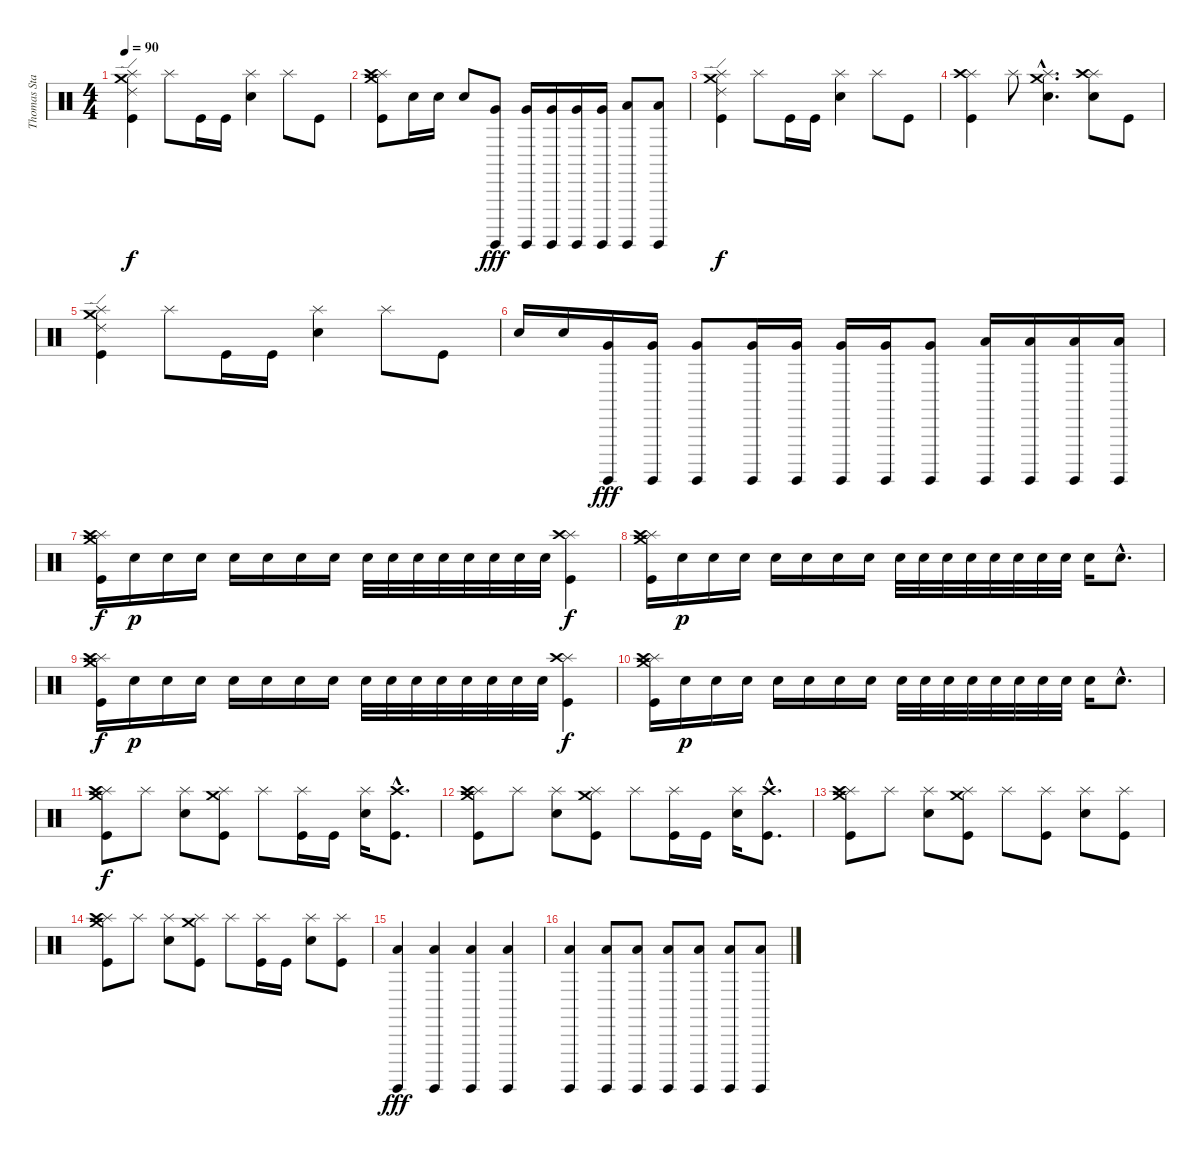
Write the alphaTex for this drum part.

\track ("Thomas Stauch" "Thomas Sta") {instrument percussion}
\staff {score}
\articulation defaults
\ts (4 4)
\tempo 90
\clef neutral
\ks c
("Crash medium (hit)" "Splash (hit)" "Ride (edge) 2" "Kick (hit)").4{dy f} "Splash (hit)".8 "Kick (hit)".16 "Kick (hit)".16 ("Splash (hit)" "Electric Snare (hit)").4 "Splash (hit)".8 "Kick (hit)".8 |
("Crash medium (hit)" "Splash (hit)" "Crash high (hit)" "Kick (hit)").8 "Electric Snare (hit)".16 "Electric Snare (hit)".16 "Electric Snare (hit)".8 ("Surdo (hit)" "Very Low Tom (hit)").8{dy fff} ("Surdo (hit)" "Very Low Tom (hit)").16 ("Surdo (hit)" "Very Low Tom (hit)").16 ("Surdo (hit)" "Very Low Tom (hit)").16 ("Surdo (hit)" "Very Low Tom (hit)").16 ("Surdo (hit)" "Low Floor Tom (hit)").8 ("Surdo (hit)" "Low Floor Tom (hit)").8 |
("Crash medium (hit)" "Splash (hit)" "Ride (edge) 2" "Kick (hit)").4{dy f} "Splash (hit)".8 "Kick (hit)".16 "Kick (hit)".16 ("Splash (hit)" "Electric Snare (hit)").4 "Splash (hit)".8 "Kick (hit)".8 |
("Splash (hit)" "Crash high (hit)" "Kick (hit)").4 "Splash (hit)".8 ("Crash medium (hit)"{hac} "Splash (hit)"{hac} "Electric Snare (hit)"{hac}).4{d} ("Splash (hit)" "Crash high (hit)" "Electric Snare (hit)").8 "Kick (hit)".8 |
("Crash medium (hit)" "Splash (hit)" "Ride (edge) 2" "Kick (hit)").4 "Splash (hit)".8 "Kick (hit)".16 "Kick (hit)".16 ("Splash (hit)" "Electric Snare (hit)").4 "Splash (hit)".8 "Kick (hit)".8 |
"Electric Snare (hit)".16 "Electric Snare (hit)".16 ("Surdo (hit)" "Very Low Tom (hit)").16{dy fff} ("Surdo (hit)" "Very Low Tom (hit)").16 ("Surdo (hit)" "Very Low Tom (hit)").8 ("Surdo (hit)" "Very Low Tom (hit)").16 ("Surdo (hit)" "Very Low Tom (hit)").16 ("Surdo (hit)" "Very Low Tom (hit)").16 ("Surdo (hit)" "Very Low Tom (hit)").16 ("Surdo (hit)" "Very Low Tom (hit)").8 ("Surdo (hit)" "Low Floor Tom (hit)").16 ("Surdo (hit)" "Low Floor Tom (hit)").16 ("Surdo (hit)" "Low Floor Tom (hit)").16 ("Surdo (hit)" "Low Floor Tom (hit)").16 |
("Crash medium (hit)" "Splash (hit)" "Crash high (hit)" "Kick (hit)").16{dy f} "Electric Snare (hit)".16{dy p} "Electric Snare (hit)".16 "Electric Snare (hit)".16 "Electric Snare (hit)".16 "Electric Snare (hit)".16 "Electric Snare (hit)".16 "Electric Snare (hit)".16 "Electric Snare (hit)".32 "Electric Snare (hit)".32 "Electric Snare (hit)".32 "Electric Snare (hit)".32 "Electric Snare (hit)".32 "Electric Snare (hit)".32 "Electric Snare (hit)".32 "Electric Snare (hit)".32 ("Splash (hit)" "Crash high (hit)" "Kick (hit)").4{dy f} |
("Crash medium (hit)" "Splash (hit)" "Crash high (hit)" "Kick (hit)").16 "Electric Snare (hit)".16{dy p} "Electric Snare (hit)".16 "Electric Snare (hit)".16 "Electric Snare (hit)".16 "Electric Snare (hit)".16 "Electric Snare (hit)".16 "Electric Snare (hit)".16 "Electric Snare (hit)".32 "Electric Snare (hit)".32 "Electric Snare (hit)".32 "Electric Snare (hit)".32 "Electric Snare (hit)".32 "Electric Snare (hit)".32 "Electric Snare (hit)".32 "Electric Snare (hit)".32 "Electric Snare (hit)".16 "Electric Snare (hit)"{hac}.8{d} |
("Crash medium (hit)" "Splash (hit)" "Crash high (hit)" "Kick (hit)").16{dy f} "Electric Snare (hit)".16{dy p} "Electric Snare (hit)".16 "Electric Snare (hit)".16 "Electric Snare (hit)".16 "Electric Snare (hit)".16 "Electric Snare (hit)".16 "Electric Snare (hit)".16 "Electric Snare (hit)".32 "Electric Snare (hit)".32 "Electric Snare (hit)".32 "Electric Snare (hit)".32 "Electric Snare (hit)".32 "Electric Snare (hit)".32 "Electric Snare (hit)".32 "Electric Snare (hit)".32 ("Splash (hit)" "Crash high (hit)" "Kick (hit)").4{dy f} |
("Crash medium (hit)" "Splash (hit)" "Crash high (hit)" "Kick (hit)").16 "Electric Snare (hit)".16{dy p} "Electric Snare (hit)".16 "Electric Snare (hit)".16 "Electric Snare (hit)".16 "Electric Snare (hit)".16 "Electric Snare (hit)".16 "Electric Snare (hit)".16 "Electric Snare (hit)".32 "Electric Snare (hit)".32 "Electric Snare (hit)".32 "Electric Snare (hit)".32 "Electric Snare (hit)".32 "Electric Snare (hit)".32 "Electric Snare (hit)".32 "Electric Snare (hit)".32 "Electric Snare (hit)".16 "Electric Snare (hit)"{hac}.8{d} |
("Crash medium (hit)" "Splash (hit)" "Crash high (hit)" "Kick (hit)").8{dy f} "Splash (hit)".8 ("Splash (hit)" "Electric Snare (hit)").8 ("Crash medium (hit)" "Splash (hit)" "Kick (hit)").8 "Splash (hit)".8 ("Splash (hit)" "Kick (hit)").16 "Kick (hit)".16 ("Splash (hit)" "Electric Snare (hit)").16 ("Crash high (hit)"{hac} "Kick (hit)"{hac}).8{d} |
("Crash medium (hit)" "Splash (hit)" "Crash high (hit)" "Kick (hit)").8 "Splash (hit)".8 ("Splash (hit)" "Electric Snare (hit)").8 ("Crash medium (hit)" "Splash (hit)" "Kick (hit)").8 "Splash (hit)".8 ("Splash (hit)" "Kick (hit)").16 "Kick (hit)".16 ("Splash (hit)" "Electric Snare (hit)").16 ("Crash high (hit)"{hac} "Kick (hit)"{hac}).8{d} |
("Crash medium (hit)" "Splash (hit)" "Crash high (hit)" "Kick (hit)").8 "Splash (hit)".8 ("Splash (hit)" "Electric Snare (hit)").8 ("Crash medium (hit)" "Splash (hit)" "Kick (hit)").8 "Splash (hit)".8 ("Splash (hit)" "Kick (hit)").8 ("Splash (hit)" "Electric Snare (hit)").8 ("Splash (hit)" "Kick (hit)").8 |
("Crash medium (hit)" "Splash (hit)" "Crash high (hit)" "Kick (hit)").8 "Splash (hit)".8 ("Splash (hit)" "Electric Snare (hit)").8 ("Crash medium (hit)" "Splash (hit)" "Kick (hit)").8 "Splash (hit)".8 ("Splash (hit)" "Kick (hit)").16 "Kick (hit)".16 ("Splash (hit)" "Electric Snare (hit)").8 ("Splash (hit)" "Kick (hit)").8 |
("Surdo (hit)" "Low Floor Tom (hit)").4{dy fff} ("Surdo (hit)" "Low Floor Tom (hit)").4 ("Surdo (hit)" "Low Floor Tom (hit)").4 ("Surdo (hit)" "Low Floor Tom (hit)").4 |
("Surdo (hit)" "Low Floor Tom (hit)").4 ("Surdo (hit)" "Low Floor Tom (hit)").8 ("Surdo (hit)" "Low Floor Tom (hit)").8 ("Surdo (hit)" "Low Floor Tom (hit)").8 ("Surdo (hit)" "Low Floor Tom (hit)").8 ("Surdo (hit)" "Low Floor Tom (hit)").8 ("Surdo (hit)" "Low Floor Tom (hit)").8
